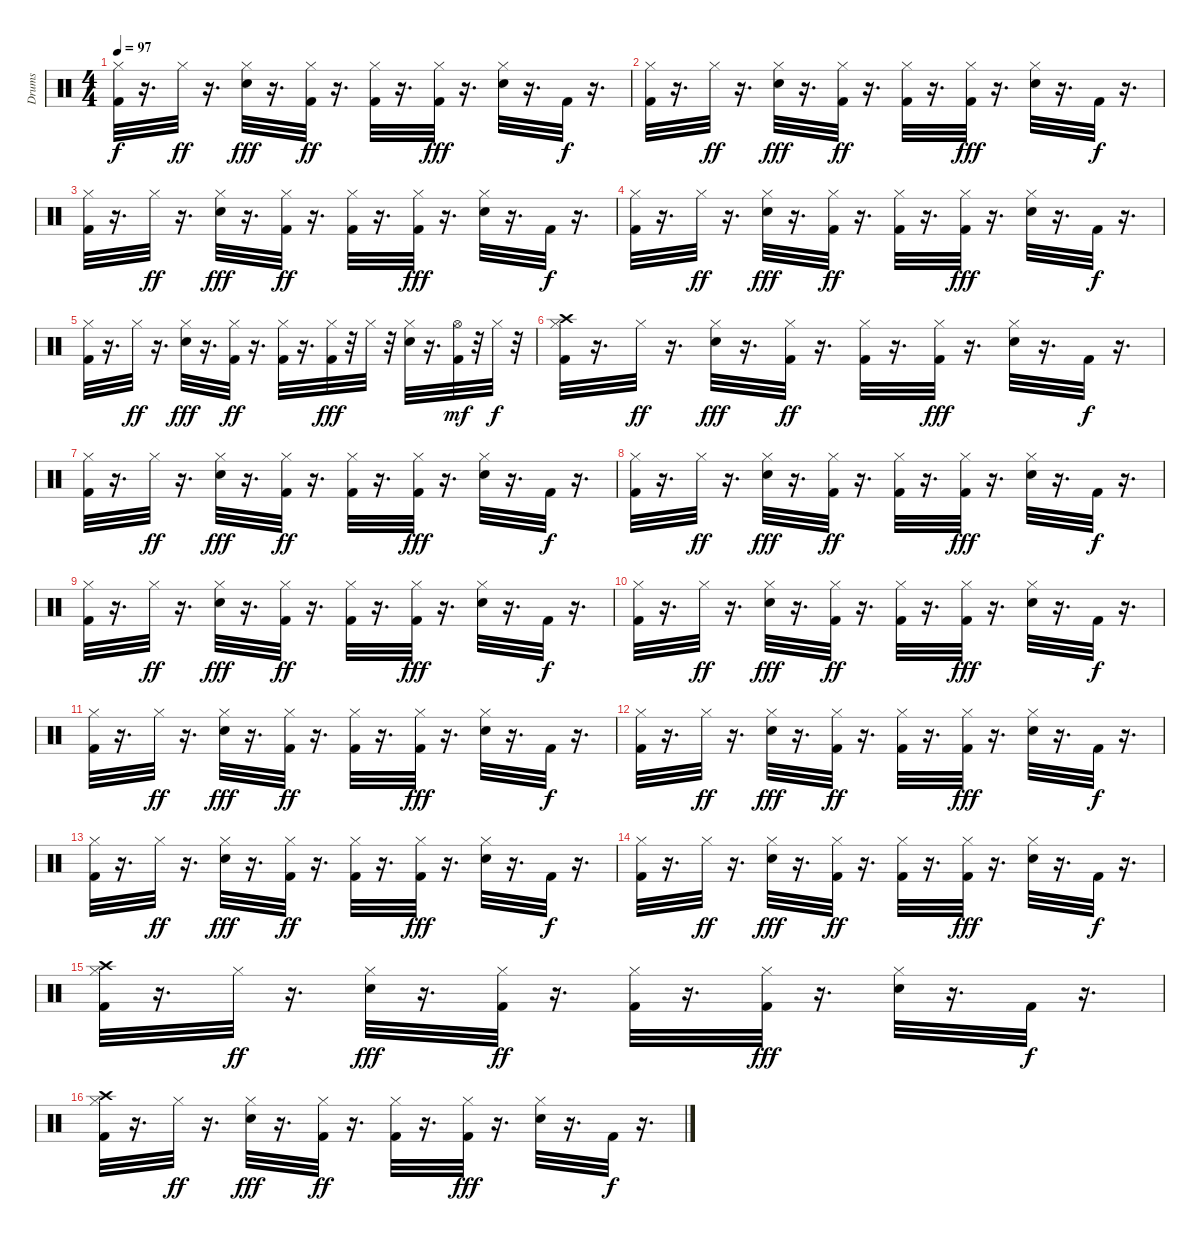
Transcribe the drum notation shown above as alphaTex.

\track ("Drums" "Drums") {instrument percussion}
\staff {score}
\articulation defaults
\ts (4 4)
\tempo 97
\clef neutral
\ks c
("Hi-Hat (closed)" "Kick (hit) 2").32{dy f} r.16{d} "Hi-Hat (closed)".32{dy ff} r.16{d} ("Hi-Hat (closed)" "Electric Snare (hit)").32{dy fff} r.16{d} ("Hi-Hat (closed)" "Kick (hit) 2").32{dy ff} r.16{d} ("Hi-Hat (closed)" "Kick (hit) 2").32 r.16{d} ("Hi-Hat (closed)" "Kick (hit) 2").32{dy fff} r.16{d} ("Hi-Hat (closed)" "Electric Snare (hit)").32 r.16{d} "Kick (hit) 2".32{dy f} r.16{d} |
("Hi-Hat (closed)" "Kick (hit) 2").32 r.16{d} "Hi-Hat (closed)".32{dy ff} r.16{d} ("Hi-Hat (closed)" "Electric Snare (hit)").32{dy fff} r.16{d} ("Hi-Hat (closed)" "Kick (hit) 2").32{dy ff} r.16{d} ("Hi-Hat (closed)" "Kick (hit) 2").32 r.16{d} ("Hi-Hat (closed)" "Kick (hit) 2").32{dy fff} r.16{d} ("Hi-Hat (closed)" "Electric Snare (hit)").32 r.16{d} "Kick (hit) 2".32{dy f} r.16{d} |
("Hi-Hat (closed)" "Kick (hit) 2").32 r.16{d} "Hi-Hat (closed)".32{dy ff} r.16{d} ("Hi-Hat (closed)" "Electric Snare (hit)").32{dy fff} r.16{d} ("Hi-Hat (closed)" "Kick (hit) 2").32{dy ff} r.16{d} ("Hi-Hat (closed)" "Kick (hit) 2").32 r.16{d} ("Hi-Hat (closed)" "Kick (hit) 2").32{dy fff} r.16{d} ("Hi-Hat (closed)" "Electric Snare (hit)").32 r.16{d} "Kick (hit) 2".32{dy f} r.16{d} |
("Hi-Hat (closed)" "Kick (hit) 2").32 r.16{d} "Hi-Hat (closed)".32{dy ff} r.16{d} ("Hi-Hat (closed)" "Electric Snare (hit)").32{dy fff} r.16{d} ("Hi-Hat (closed)" "Kick (hit) 2").32{dy ff} r.16{d} ("Hi-Hat (closed)" "Kick (hit) 2").32 r.16{d} ("Hi-Hat (closed)" "Kick (hit) 2").32{dy fff} r.16{d} ("Hi-Hat (closed)" "Electric Snare (hit)").32 r.16{d} "Kick (hit) 2".32{dy f} r.16{d} |
("Hi-Hat (closed)" "Kick (hit) 2").32 r.16{d} "Hi-Hat (closed)".32{dy ff} r.16{d} ("Hi-Hat (closed)" "Electric Snare (hit)").32{dy fff} r.16{d} ("Hi-Hat (closed)" "Kick (hit) 2").32{dy ff} r.16{d} ("Hi-Hat (closed)" "Kick (hit) 2").32 r.16{d} ("Hi-Hat (closed)" "Kick (hit) 2").32{dy fff} r.32 "Hi-Hat (closed)".32 r.32 ("Hi-Hat (closed)" "Electric Snare (hit)").32 r.16{d} ("Hi-Hat (open)" "Kick (hit) 2").32{dy mf} r.32 "Hi-Hat (closed)".32{dy f} r.32 |
("Crash high (hit)" "Hi-Hat (closed)" "Kick (hit) 2").32 r.16{d} "Hi-Hat (closed)".32{dy ff} r.16{d} ("Hi-Hat (closed)" "Electric Snare (hit)").32{dy fff} r.16{d} ("Hi-Hat (closed)" "Kick (hit) 2").32{dy ff} r.16{d} ("Hi-Hat (closed)" "Kick (hit) 2").32 r.16{d} ("Hi-Hat (closed)" "Kick (hit) 2").32{dy fff} r.16{d} ("Hi-Hat (closed)" "Electric Snare (hit)").32 r.16{d} "Kick (hit) 2".32{dy f} r.16{d} |
("Hi-Hat (closed)" "Kick (hit) 2").32 r.16{d} "Hi-Hat (closed)".32{dy ff} r.16{d} ("Hi-Hat (closed)" "Electric Snare (hit)").32{dy fff} r.16{d} ("Hi-Hat (closed)" "Kick (hit) 2").32{dy ff} r.16{d} ("Hi-Hat (closed)" "Kick (hit) 2").32 r.16{d} ("Hi-Hat (closed)" "Kick (hit) 2").32{dy fff} r.16{d} ("Hi-Hat (closed)" "Electric Snare (hit)").32 r.16{d} "Kick (hit) 2".32{dy f} r.16{d} |
("Hi-Hat (closed)" "Kick (hit) 2").32 r.16{d} "Hi-Hat (closed)".32{dy ff} r.16{d} ("Hi-Hat (closed)" "Electric Snare (hit)").32{dy fff} r.16{d} ("Hi-Hat (closed)" "Kick (hit) 2").32{dy ff} r.16{d} ("Hi-Hat (closed)" "Kick (hit) 2").32 r.16{d} ("Hi-Hat (closed)" "Kick (hit) 2").32{dy fff} r.16{d} ("Hi-Hat (closed)" "Electric Snare (hit)").32 r.16{d} "Kick (hit) 2".32{dy f} r.16{d} |
("Hi-Hat (closed)" "Kick (hit) 2").32 r.16{d} "Hi-Hat (closed)".32{dy ff} r.16{d} ("Hi-Hat (closed)" "Electric Snare (hit)").32{dy fff} r.16{d} ("Hi-Hat (closed)" "Kick (hit) 2").32{dy ff} r.16{d} ("Hi-Hat (closed)" "Kick (hit) 2").32 r.16{d} ("Hi-Hat (closed)" "Kick (hit) 2").32{dy fff} r.16{d} ("Hi-Hat (closed)" "Electric Snare (hit)").32 r.16{d} "Kick (hit) 2".32{dy f} r.16{d} |
("Hi-Hat (closed)" "Kick (hit) 2").32 r.16{d} "Hi-Hat (closed)".32{dy ff} r.16{d} ("Hi-Hat (closed)" "Electric Snare (hit)").32{dy fff} r.16{d} ("Hi-Hat (closed)" "Kick (hit) 2").32{dy ff} r.16{d} ("Hi-Hat (closed)" "Kick (hit) 2").32 r.16{d} ("Hi-Hat (closed)" "Kick (hit) 2").32{dy fff} r.16{d} ("Hi-Hat (closed)" "Electric Snare (hit)").32 r.16{d} "Kick (hit) 2".32{dy f} r.16{d} |
("Hi-Hat (closed)" "Kick (hit) 2").32 r.16{d} "Hi-Hat (closed)".32{dy ff} r.16{d} ("Hi-Hat (closed)" "Electric Snare (hit)").32{dy fff} r.16{d} ("Hi-Hat (closed)" "Kick (hit) 2").32{dy ff} r.16{d} ("Hi-Hat (closed)" "Kick (hit) 2").32 r.16{d} ("Hi-Hat (closed)" "Kick (hit) 2").32{dy fff} r.16{d} ("Hi-Hat (closed)" "Electric Snare (hit)").32 r.16{d} "Kick (hit) 2".32{dy f} r.16{d} |
("Hi-Hat (closed)" "Kick (hit) 2").32 r.16{d} "Hi-Hat (closed)".32{dy ff} r.16{d} ("Hi-Hat (closed)" "Electric Snare (hit)").32{dy fff} r.16{d} ("Hi-Hat (closed)" "Kick (hit) 2").32{dy ff} r.16{d} ("Hi-Hat (closed)" "Kick (hit) 2").32 r.16{d} ("Hi-Hat (closed)" "Kick (hit) 2").32{dy fff} r.16{d} ("Hi-Hat (closed)" "Electric Snare (hit)").32 r.16{d} "Kick (hit) 2".32{dy f} r.16{d} |
("Hi-Hat (closed)" "Kick (hit) 2").32 r.16{d} "Hi-Hat (closed)".32{dy ff} r.16{d} ("Hi-Hat (closed)" "Electric Snare (hit)").32{dy fff} r.16{d} ("Hi-Hat (closed)" "Kick (hit) 2").32{dy ff} r.16{d} ("Hi-Hat (closed)" "Kick (hit) 2").32 r.16{d} ("Hi-Hat (closed)" "Kick (hit) 2").32{dy fff} r.16{d} ("Hi-Hat (closed)" "Electric Snare (hit)").32 r.16{d} "Kick (hit) 2".32{dy f} r.16{d} |
("Hi-Hat (closed)" "Kick (hit) 2").32 r.16{d} "Hi-Hat (closed)".32{dy ff} r.16{d} ("Hi-Hat (closed)" "Electric Snare (hit)").32{dy fff} r.16{d} ("Hi-Hat (closed)" "Kick (hit) 2").32{dy ff} r.16{d} ("Hi-Hat (closed)" "Kick (hit) 2").32 r.16{d} ("Hi-Hat (closed)" "Kick (hit) 2").32{dy fff} r.16{d} ("Hi-Hat (closed)" "Electric Snare (hit)").32 r.16{d} "Kick (hit) 2".32{dy f} r.16{d} |
("Crash high (hit)" "Hi-Hat (closed)" "Kick (hit) 2").32 r.16{d} "Hi-Hat (closed)".32{dy ff} r.16{d} ("Hi-Hat (closed)" "Electric Snare (hit)").32{dy fff} r.16{d} ("Hi-Hat (closed)" "Kick (hit) 2").32{dy ff} r.16{d} ("Hi-Hat (closed)" "Kick (hit) 2").32 r.16{d} ("Hi-Hat (closed)" "Kick (hit) 2").32{dy fff} r.16{d} ("Hi-Hat (closed)" "Electric Snare (hit)").32 r.16{d} "Kick (hit) 2".32{dy f} r.16{d} |
("Crash high (hit)" "Hi-Hat (closed)" "Kick (hit) 2").32 r.16{d} "Hi-Hat (closed)".32{dy ff} r.16{d} ("Hi-Hat (closed)" "Electric Snare (hit)").32{dy fff} r.16{d} ("Hi-Hat (closed)" "Kick (hit) 2").32{dy ff} r.16{d} ("Hi-Hat (closed)" "Kick (hit) 2").32 r.16{d} ("Hi-Hat (closed)" "Kick (hit) 2").32{dy fff} r.16{d} ("Hi-Hat (closed)" "Electric Snare (hit)").32 r.16{d} "Kick (hit) 2".32{dy f} r.16{d}
